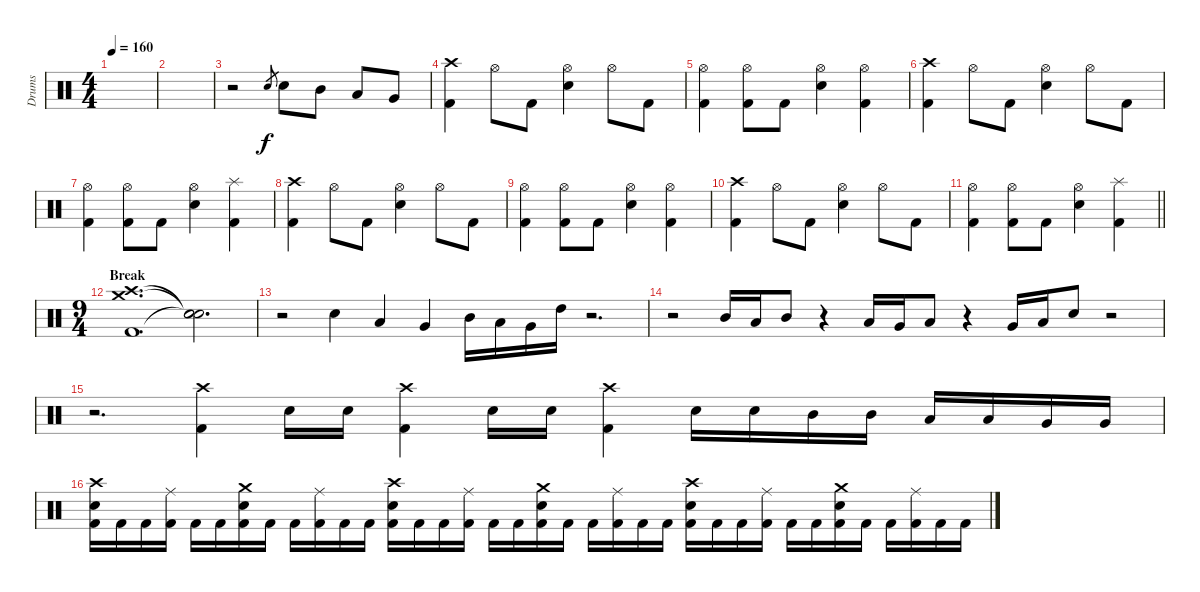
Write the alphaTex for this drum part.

\track ("Drums" "Drums") {instrument percussion}
\staff {score}
\articulation defaults
\ts (4 4)
\tempo 160
\clef neutral
\ks c
|
|
r.2 "Snare (hit) 2".8{gr} "Snare (hit) 2".8 "Mid Tom (hit)".8 "Low Tom (hit)".8 "Very Low Tom (hit)".8 |
("Crash high (hit)" "Kick (hit) 2").4 "Hi-Hat (open)".8 "Kick (hit) 2".8 ("Hi-Hat (open)" "Snare (hit) 2").4 "Hi-Hat (open)".8 "Kick (hit) 2".8 |
("Hi-Hat (open)" "Kick (hit) 2").4 ("Hi-Hat (open)" "Kick (hit) 2").8 "Kick (hit) 2".8 ("Hi-Hat (open)" "Snare (hit) 2").4 ("Hi-Hat (open)" "Kick (hit) 2").4 |
("Crash high (hit)" "Kick (hit) 2").4 "Hi-Hat (open)".8 "Kick (hit) 2".8 ("Hi-Hat (open)" "Snare (hit) 2").4 "Hi-Hat (open)".8 "Kick (hit) 2".8 |
("Hi-Hat (open)" "Kick (hit) 2").4 ("Hi-Hat (open)" "Kick (hit) 2").8 "Kick (hit) 2".8 ("Hi-Hat (open)" "Snare (hit) 2").4 ("Splash (hit)" "Kick (hit) 2").4 |
("Crash high (hit)" "Kick (hit) 2").4 "Hi-Hat (open)".8 "Kick (hit) 2".8 ("Hi-Hat (open)" "Snare (hit) 2").4 "Hi-Hat (open)".8 "Kick (hit) 2".8 |
("Hi-Hat (open)" "Kick (hit) 2").4 ("Hi-Hat (open)" "Kick (hit) 2").8 "Kick (hit) 2".8 ("Hi-Hat (open)" "Snare (hit) 2").4 ("Hi-Hat (open)" "Kick (hit) 2").4 |
("Crash high (hit)" "Kick (hit) 2").4 "Hi-Hat (open)".8 "Kick (hit) 2".8 ("Hi-Hat (open)" "Snare (hit) 2").4 "Hi-Hat (open)".8 "Kick (hit) 2".8 |
\barLineRight lightlight
("Hi-Hat (open)" "Kick (hit) 2").4 ("Hi-Hat (open)" "Kick (hit) 2").8 "Kick (hit) 2".8 ("Hi-Hat (open)" "Snare (hit) 2").4 ("Splash (hit)" "Kick (hit) 2").4 |
\ts (9 4)
\section ("" "Break")
("Crash high (hit)" "Crash medium (hit)" "Kick (hit) 2").1{d volume 0} ("Snare (hit)"{t} "Snare (hit)"{t} "Snare (hit)"{t}).2{d} |
r.2{volume 16} "Snare (hit) 2".4 "Low Floor Tom (hit)".4 "Very Low Tom (hit)".4 "Mid Tom (hit)".16 "Low Tom (hit)".16 "Very Low Tom (hit)".16 "High Tom (hit)".16 r.2{d} |
r.2 "Mid Tom (hit)".16 "Low Tom (hit)".16 "Mid Tom (hit)".8 r.4 "Low Tom (hit)".16 "Very Low Tom (hit)".16 "Low Floor Tom (hit)".8 r.4 "Very Low Tom (hit)".16 "Low Floor Tom (hit)".16 "Snare (hit) 2".8 r.2 |
r.2{d} ("Crash high (hit)" "Kick (hit) 2").4 "Snare (hit) 2".16 "Snare (hit) 2".16 ("Crash high (hit)" "Kick (hit) 2").4 "Snare (hit) 2".16 "Snare (hit) 2".16 ("Crash high (hit)" "Kick (hit) 2").4 "Snare (hit) 2".16 "Snare (hit) 2".16 "Mid Tom (hit)".16 "Mid Tom (hit)".16 "Low Tom (hit)".16 "Low Tom (hit)".16 "Very Low Tom (hit)".16 "Very Low Tom (hit)".16 |
("Crash high (hit)" "Snare (hit) 2" "Kick (hit) 2").16 "Kick (hit) 2".16 "Kick (hit) 2".16 ("Ride (middle)" "Kick (hit) 2").16 "Kick (hit) 2".16 "Kick (hit) 2".16 ("Crash medium (hit)" "Snare (hit) 2" "Kick (hit) 2").16 "Kick (hit) 2".16 "Kick (hit) 2".16 ("Ride (middle)" "Kick (hit) 2").16 "Kick (hit) 2".16 "Kick (hit) 2".16 ("Crash high (hit)" "Snare (hit) 2" "Kick (hit) 2").16 "Kick (hit) 2".16 "Kick (hit) 2".16 ("Ride (middle)" "Kick (hit) 2").16 "Kick (hit) 2".16 "Kick (hit) 2".16 ("Crash medium (hit)" "Snare (hit) 2" "Kick (hit) 2").16 "Kick (hit) 2".16 "Kick (hit) 2".16 ("Ride (middle)" "Kick (hit) 2").16 "Kick (hit) 2".16 "Kick (hit) 2".16 ("Crash high (hit)" "Snare (hit) 2" "Kick (hit) 2").16 "Kick (hit) 2".16 "Kick (hit) 2".16 ("Ride (middle)" "Kick (hit) 2").16 "Kick (hit) 2".16 "Kick (hit) 2".16 ("Crash medium (hit)" "Snare (hit) 2" "Kick (hit) 2").16 "Kick (hit) 2".16 "Kick (hit) 2".16 ("Ride (middle)" "Kick (hit) 2").16 "Kick (hit) 2".16 "Kick (hit) 2".16
